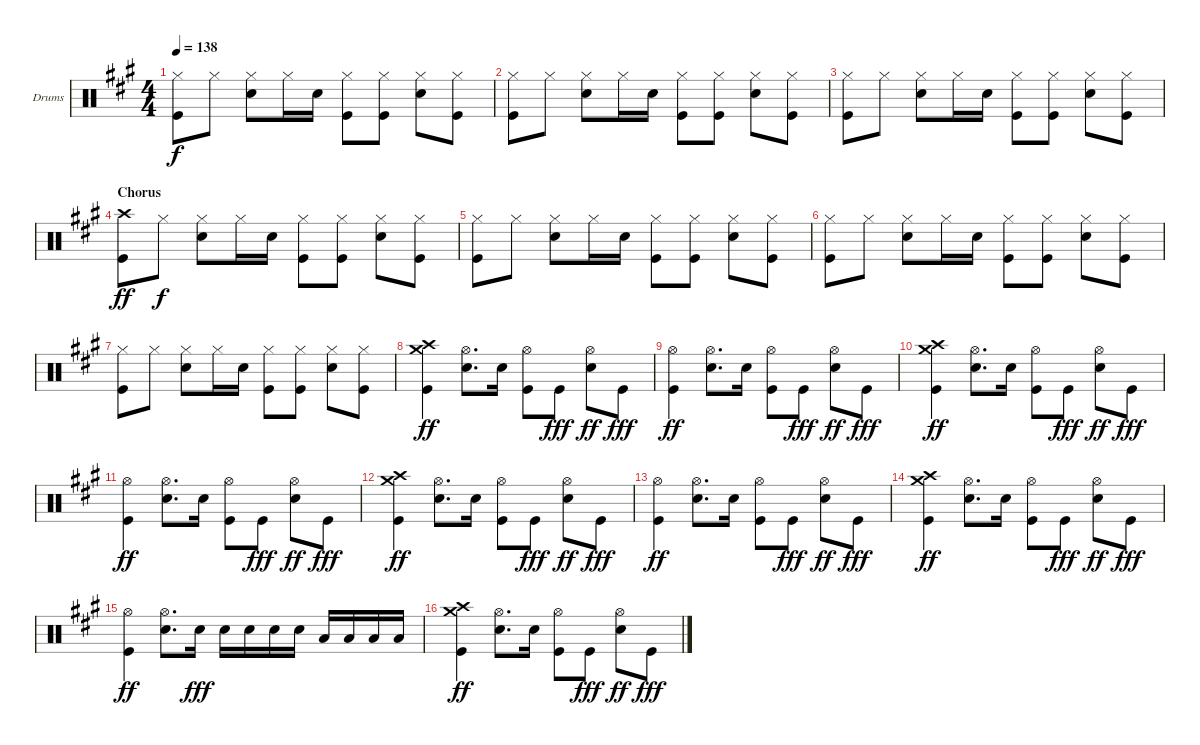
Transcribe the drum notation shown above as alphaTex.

\defaultSystemsLayout 4
\bracketExtendMode groupsimilarinstruments
\firstSystemTrackNameOrientation horizontal
\otherSystemsTrackNameOrientation horizontal
\track ("Drumkit" "Drums") {instrument percussion}
\staff {score}
\articulation defaults
\ts (4 4)
\tempo 138
\clef neutral
\scale
0.941992
\ks a
("Hi-Hat (closed)" "Kick (hit)").8{dy f} "Hi-Hat (closed)".8 ("Hi-Hat (closed)" "Snare (hit) 2").8 "Hi-Hat (closed)".16 "Snare (hit) 2".16 ("Hi-Hat (closed)" "Kick (hit)").8 ("Hi-Hat (closed)" "Kick (hit)").8 ("Hi-Hat (closed)" "Snare (hit) 2").8 ("Hi-Hat (closed)" "Kick (hit)").8 |
\scale
1.05801 ("Hi-Hat (closed)" "Kick (hit)").8 "Hi-Hat (closed)".8 ("Hi-Hat (closed)" "Snare (hit) 2").8 "Hi-Hat (closed)".16 "Snare (hit) 2".16 ("Hi-Hat (closed)" "Kick (hit)").8 ("Hi-Hat (closed)" "Kick (hit)").8 ("Hi-Hat (closed)" "Snare (hit) 2").8 ("Hi-Hat (closed)" "Kick (hit)").8 |
\scale
0.941992 ("Hi-Hat (closed)" "Kick (hit)").8 "Hi-Hat (closed)".8 ("Hi-Hat (closed)" "Snare (hit) 2").8 "Hi-Hat (closed)".16 "Snare (hit) 2".16 ("Hi-Hat (closed)" "Kick (hit)").8 ("Hi-Hat (closed)" "Kick (hit)").8 ("Hi-Hat (closed)" "Snare (hit) 2").8 ("Hi-Hat (closed)" "Kick (hit)").8 |
\section ("" "Chorus")
\scale
1.05801 ("Crash high (hit)" "Kick (hit)").8{dy ff} "Hi-Hat (closed)".8{dy f} ("Hi-Hat (closed)" "Snare (hit) 2").8 "Hi-Hat (closed)".16 "Snare (hit) 2".16 ("Hi-Hat (closed)" "Kick (hit)").8 ("Hi-Hat (closed)" "Kick (hit)").8 ("Hi-Hat (closed)" "Snare (hit) 2").8 ("Hi-Hat (closed)" "Kick (hit)").8 |
\scale
0.941992 ("Hi-Hat (closed)" "Kick (hit)").8 "Hi-Hat (closed)".8 ("Hi-Hat (closed)" "Snare (hit) 2").8 "Hi-Hat (closed)".16 "Snare (hit) 2".16 ("Hi-Hat (closed)" "Kick (hit)").8 ("Hi-Hat (closed)" "Kick (hit)").8 ("Hi-Hat (closed)" "Snare (hit) 2").8 ("Hi-Hat (closed)" "Kick (hit)").8 |
\scale
1.05801 ("Hi-Hat (closed)" "Kick (hit)").8 "Hi-Hat (closed)".8 ("Hi-Hat (closed)" "Snare (hit) 2").8 "Hi-Hat (closed)".16 "Snare (hit) 2".16 ("Hi-Hat (closed)" "Kick (hit)").8 ("Hi-Hat (closed)" "Kick (hit)").8 ("Hi-Hat (closed)" "Snare (hit) 2").8 ("Hi-Hat (closed)" "Kick (hit)").8 |
\scale
0.941992 ("Hi-Hat (closed)" "Kick (hit)").8 "Hi-Hat (closed)".8 ("Hi-Hat (closed)" "Snare (hit) 2").8 "Hi-Hat (closed)".16 "Snare (hit) 2".16 ("Hi-Hat (closed)" "Kick (hit)").8 ("Hi-Hat (closed)" "Kick (hit)").8 ("Hi-Hat (closed)" "Snare (hit) 2").8 ("Hi-Hat (closed)" "Kick (hit)").8 |
\scale
1.05801 ("Crash high (hit)" "Crash medium (hit)" "Kick (hit)").4{dy ff} ("Hi-Hat (open)" "Snare (hit) 2").8{d} "Snare (hit) 2".16 ("Hi-Hat (open)" "Kick (hit)").8 "Kick (hit)".8{dy fff} ("Hi-Hat (open)" "Snare (hit) 2").8{dy ff} "Kick (hit)".8{dy fff} |
\scale
0.941992 ("Hi-Hat (open)" "Kick (hit)").4{dy ff} ("Hi-Hat (open)" "Snare (hit) 2").8{d} "Snare (hit) 2".16 ("Hi-Hat (open)" "Kick (hit)").8 "Kick (hit)".8{dy fff} ("Hi-Hat (open)" "Snare (hit) 2").8{dy ff} "Kick (hit)".8{dy fff} |
\scale
1.05801 ("Crash high (hit)" "Crash medium (hit)" "Kick (hit)").4{dy ff} ("Hi-Hat (open)" "Snare (hit) 2").8{d} "Snare (hit) 2".16 ("Hi-Hat (open)" "Kick (hit)").8 "Kick (hit)".8{dy fff} ("Hi-Hat (open)" "Snare (hit) 2").8{dy ff} "Kick (hit)".8{dy fff} |
\scale
0.941992 ("Hi-Hat (open)" "Kick (hit)").4{dy ff} ("Hi-Hat (open)" "Snare (hit) 2").8{d} "Snare (hit) 2".16 ("Hi-Hat (open)" "Kick (hit)").8 "Kick (hit)".8{dy fff} ("Hi-Hat (open)" "Snare (hit) 2").8{dy ff} "Kick (hit)".8{dy fff} |
\scale
1.05801 ("Crash high (hit)" "Crash medium (hit)" "Kick (hit)").4{dy ff} ("Hi-Hat (open)" "Snare (hit) 2").8{d} "Snare (hit) 2".16 ("Hi-Hat (open)" "Kick (hit)").8 "Kick (hit)".8{dy fff} ("Hi-Hat (open)" "Snare (hit) 2").8{dy ff} "Kick (hit)".8{dy fff} |
\scale
0.941992 ("Hi-Hat (open)" "Kick (hit)").4{dy ff} ("Hi-Hat (open)" "Snare (hit) 2").8{d} "Snare (hit) 2".16 ("Hi-Hat (open)" "Kick (hit)").8 "Kick (hit)".8{dy fff} ("Hi-Hat (open)" "Snare (hit) 2").8{dy ff} "Kick (hit)".8{dy fff} |
\scale
1.05801 ("Crash high (hit)" "Crash medium (hit)" "Kick (hit)").4{dy ff} ("Hi-Hat (open)" "Snare (hit) 2").8{d} "Snare (hit) 2".16 ("Hi-Hat (open)" "Kick (hit)").8 "Kick (hit)".8{dy fff} ("Hi-Hat (open)" "Snare (hit) 2").8{dy ff} "Kick (hit)".8{dy fff} |
\scale
0.941992 ("Hi-Hat (open)" "Kick (hit)").4{dy ff} ("Hi-Hat (open)" "Snare (hit) 2").8{d} "Snare (hit) 2".16{dy fff} "Snare (hit) 2".16 "Snare (hit) 2".16 "Snare (hit) 2".16 "Snare (hit) 2".16 "Low Tom (hit)".16 "Low Tom (hit)".16 "Low Tom (hit)".16 "Low Tom (hit)".16 |
\scale
1.05801 ("Crash medium (hit)" "Crash high (hit)" "Kick (hit)").4{dy ff} ("Hi-Hat (open)" "Snare (hit) 2").8{d} "Snare (hit) 2".16 ("Hi-Hat (open)" "Kick (hit)").8 "Kick (hit)".8{dy fff} ("Hi-Hat (open)" "Snare (hit) 2").8{dy ff} "Kick (hit)".8{dy fff}
